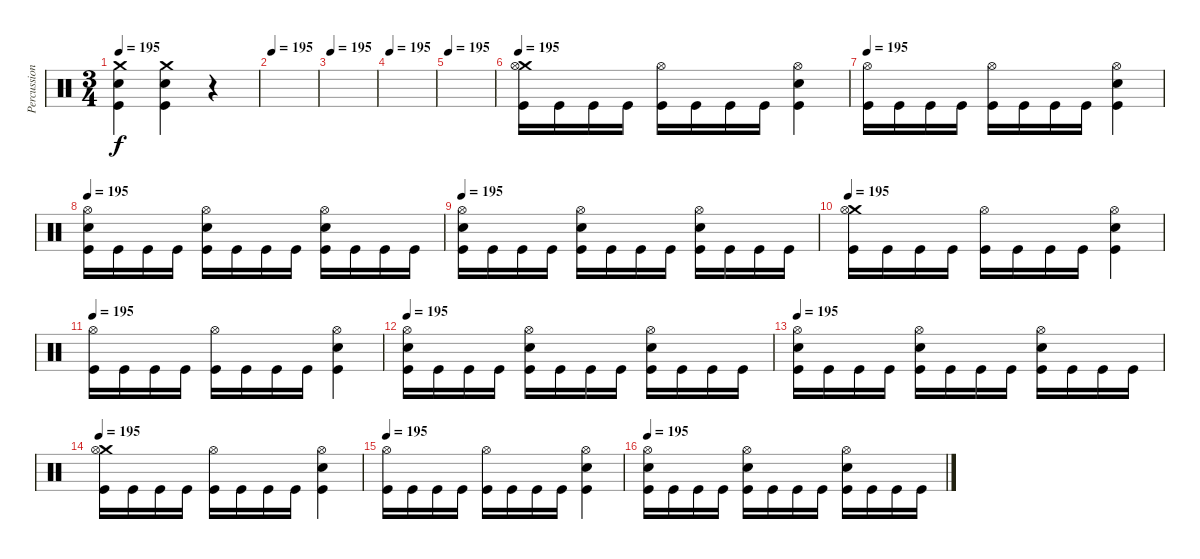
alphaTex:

\track ("Percussion" "Percussion") {instrument percussion}
\staff {score}
\articulation defaults
\ts (3 4)
\tempo 195
\clef neutral
\ks c
("Crash medium (hit)" "Electric Snare (hit)" "Kick (hit)").4{dy f} ("Crash medium (hit)" "Electric Snare (hit)" "Kick (hit)").4 r.4 |
\tempo 195
|
\tempo 195
|
\tempo 195
|
\tempo 195
|
\tempo 195
("Crash medium (hit)" "Hi-Hat (open)" "Kick (hit)").16 "Kick (hit)".16 "Kick (hit)".16 "Kick (hit)".16 ("Hi-Hat (open)" "Kick (hit)").16 "Kick (hit)".16 "Kick (hit)".16 "Kick (hit)".16 ("Electric Snare (hit)" "Hi-Hat (open)" "Kick (hit)").4 |
\tempo 195
("Hi-Hat (open)" "Kick (hit)").16 "Kick (hit)".16 "Kick (hit)".16 "Kick (hit)".16 ("Hi-Hat (open)" "Kick (hit)").16 "Kick (hit)".16 "Kick (hit)".16 "Kick (hit)".16 ("Electric Snare (hit)" "Hi-Hat (open)" "Kick (hit)").4 |
\tempo 195
("Electric Snare (hit)" "Hi-Hat (open)" "Kick (hit)").16 "Kick (hit)".16 "Kick (hit)".16 "Kick (hit)".16 ("Electric Snare (hit)" "Hi-Hat (open)" "Kick (hit)").16 "Kick (hit)".16 "Kick (hit)".16 "Kick (hit)".16 ("Electric Snare (hit)" "Hi-Hat (open)" "Kick (hit)").16 "Kick (hit)".16 "Kick (hit)".16 "Kick (hit)".16 |
\tempo 195
("Electric Snare (hit)" "Hi-Hat (open)" "Kick (hit)").16 "Kick (hit)".16 "Kick (hit)".16 "Kick (hit)".16 ("Electric Snare (hit)" "Hi-Hat (open)" "Kick (hit)").16 "Kick (hit)".16 "Kick (hit)".16 "Kick (hit)".16 ("Electric Snare (hit)" "Hi-Hat (open)" "Kick (hit)").16 "Kick (hit)".16 "Kick (hit)".16 "Kick (hit)".16 |
\tempo 195
("Crash medium (hit)" "Hi-Hat (open)" "Kick (hit)").16 "Kick (hit)".16 "Kick (hit)".16 "Kick (hit)".16 ("Hi-Hat (open)" "Kick (hit)").16 "Kick (hit)".16 "Kick (hit)".16 "Kick (hit)".16 ("Electric Snare (hit)" "Hi-Hat (open)" "Kick (hit)").4 |
\tempo 195
("Hi-Hat (open)" "Kick (hit)").16 "Kick (hit)".16 "Kick (hit)".16 "Kick (hit)".16 ("Hi-Hat (open)" "Kick (hit)").16 "Kick (hit)".16 "Kick (hit)".16 "Kick (hit)".16 ("Electric Snare (hit)" "Hi-Hat (open)" "Kick (hit)").4 |
\tempo 195
("Electric Snare (hit)" "Hi-Hat (open)" "Kick (hit)").16 "Kick (hit)".16 "Kick (hit)".16 "Kick (hit)".16 ("Electric Snare (hit)" "Hi-Hat (open)" "Kick (hit)").16 "Kick (hit)".16 "Kick (hit)".16 "Kick (hit)".16 ("Electric Snare (hit)" "Hi-Hat (open)" "Kick (hit)").16 "Kick (hit)".16 "Kick (hit)".16 "Kick (hit)".16 |
\tempo 195
("Electric Snare (hit)" "Hi-Hat (open)" "Kick (hit)").16 "Kick (hit)".16 "Kick (hit)".16 "Kick (hit)".16 ("Electric Snare (hit)" "Hi-Hat (open)" "Kick (hit)").16 "Kick (hit)".16 "Kick (hit)".16 "Kick (hit)".16 ("Electric Snare (hit)" "Hi-Hat (open)" "Kick (hit)").16 "Kick (hit)".16 "Kick (hit)".16 "Kick (hit)".16 |
\tempo 195
("Crash medium (hit)" "Hi-Hat (open)" "Kick (hit)").16 "Kick (hit)".16 "Kick (hit)".16 "Kick (hit)".16 ("Hi-Hat (open)" "Kick (hit)").16 "Kick (hit)".16 "Kick (hit)".16 "Kick (hit)".16 ("Electric Snare (hit)" "Hi-Hat (open)" "Kick (hit)").4 |
\tempo 195
("Hi-Hat (open)" "Kick (hit)").16 "Kick (hit)".16 "Kick (hit)".16 "Kick (hit)".16 ("Hi-Hat (open)" "Kick (hit)").16 "Kick (hit)".16 "Kick (hit)".16 "Kick (hit)".16 ("Electric Snare (hit)" "Hi-Hat (open)" "Kick (hit)").4 |
\tempo 195
("Electric Snare (hit)" "Hi-Hat (open)" "Kick (hit)").16 "Kick (hit)".16 "Kick (hit)".16 "Kick (hit)".16 ("Electric Snare (hit)" "Hi-Hat (open)" "Kick (hit)").16 "Kick (hit)".16 "Kick (hit)".16 "Kick (hit)".16 ("Electric Snare (hit)" "Hi-Hat (open)" "Kick (hit)").16 "Kick (hit)".16 "Kick (hit)".16 "Kick (hit)".16
